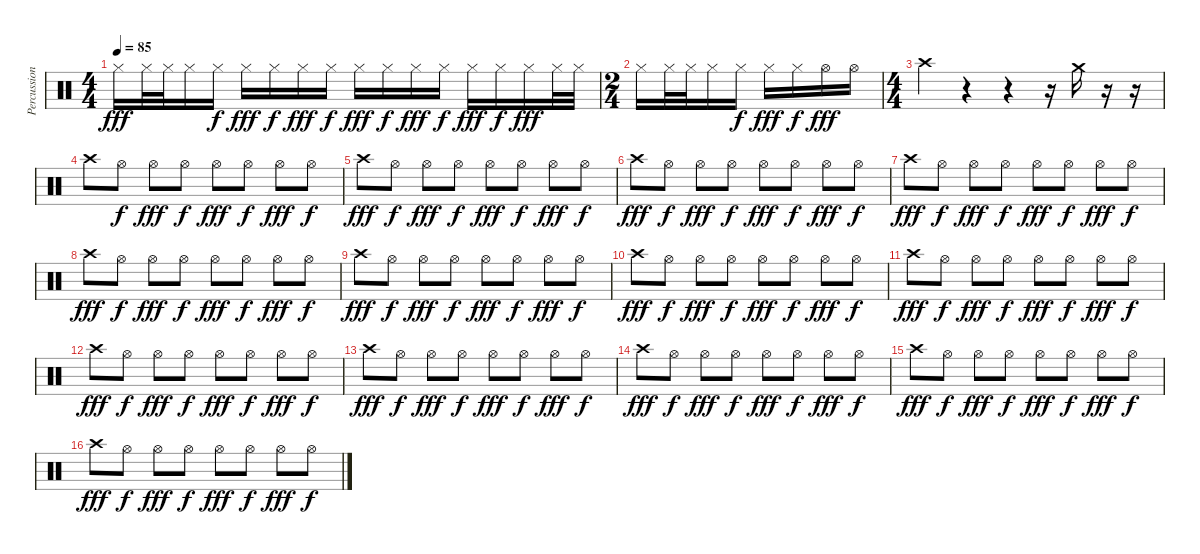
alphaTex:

\track ("Percussion" "Percussion") {instrument percussion}
\staff {score}
\articulation defaults
\ts (4 4)
\tempo 85
\clef neutral
\ks c "Hi-Hat (closed)".16{dy fff} "Hi-Hat (closed)".32 "Hi-Hat (closed)".32 "Hi-Hat (closed)".16 "Hi-Hat (closed)".16{dy f} "Hi-Hat (closed)".16{dy fff} "Hi-Hat (closed)".16{dy f} "Hi-Hat (closed)".16{dy fff} "Hi-Hat (closed)".16{dy f} "Hi-Hat (closed)".16{dy fff} "Hi-Hat (closed)".16{dy f} "Hi-Hat (closed)".16{dy fff} "Hi-Hat (closed)".16{dy f} "Hi-Hat (closed)".16{dy fff} "Hi-Hat (closed)".16{dy f} "Hi-Hat (closed)".16{dy fff} "Hi-Hat (closed)".32 "Hi-Hat (closed)".32
|
\ts (2 4)
"Hi-Hat (closed)".16 "Hi-Hat (closed)".32 "Hi-Hat (closed)".32 "Hi-Hat (closed)".16 "Hi-Hat (closed)".16{dy f} "Hi-Hat (closed)".16{dy fff} "Hi-Hat (closed)".16{dy f} "Hi-Hat (open)".16{dy fff} "Hi-Hat (open)".16 |
\ts (4 4)
"Crash high (hit)".4 r.4 r.4 r.16 "Crash medium (hit)".16 r.16 r.16 |
"Crash high (hit)".8 "Hi-Hat (open)".8{dy f} "Hi-Hat (open)".8{dy fff} "Hi-Hat (open)".8{dy f} "Hi-Hat (open)".8{dy fff} "Hi-Hat (open)".8{dy f} "Hi-Hat (open)".8{dy fff} "Hi-Hat (open)".8{dy f} |
"Crash high (hit)".8{dy fff} "Hi-Hat (open)".8{dy f} "Hi-Hat (open)".8{dy fff} "Hi-Hat (open)".8{dy f} "Hi-Hat (open)".8{dy fff} "Hi-Hat (open)".8{dy f} "Hi-Hat (open)".8{dy fff} "Hi-Hat (open)".8{dy f} |
"Crash high (hit)".8{dy fff} "Hi-Hat (open)".8{dy f} "Hi-Hat (open)".8{dy fff} "Hi-Hat (open)".8{dy f} "Hi-Hat (open)".8{dy fff} "Hi-Hat (open)".8{dy f} "Hi-Hat (open)".8{dy fff} "Hi-Hat (open)".8{dy f} |
"Crash high (hit)".8{dy fff} "Hi-Hat (open)".8{dy f} "Hi-Hat (open)".8{dy fff} "Hi-Hat (open)".8{dy f} "Hi-Hat (open)".8{dy fff} "Hi-Hat (open)".8{dy f} "Hi-Hat (open)".8{dy fff} "Hi-Hat (open)".8{dy f} |
"Crash high (hit)".8{dy fff} "Hi-Hat (open)".8{dy f} "Hi-Hat (open)".8{dy fff} "Hi-Hat (open)".8{dy f} "Hi-Hat (open)".8{dy fff} "Hi-Hat (open)".8{dy f} "Hi-Hat (open)".8{dy fff} "Hi-Hat (open)".8{dy f} |
"Crash high (hit)".8{dy fff} "Hi-Hat (open)".8{dy f} "Hi-Hat (open)".8{dy fff} "Hi-Hat (open)".8{dy f} "Hi-Hat (open)".8{dy fff} "Hi-Hat (open)".8{dy f} "Hi-Hat (open)".8{dy fff} "Hi-Hat (open)".8{dy f} |
"Crash high (hit)".8{dy fff} "Hi-Hat (open)".8{dy f} "Hi-Hat (open)".8{dy fff} "Hi-Hat (open)".8{dy f} "Hi-Hat (open)".8{dy fff} "Hi-Hat (open)".8{dy f} "Hi-Hat (open)".8{dy fff} "Hi-Hat (open)".8{dy f} |
"Crash high (hit)".8{dy fff} "Hi-Hat (open)".8{dy f} "Hi-Hat (open)".8{dy fff} "Hi-Hat (open)".8{dy f} "Hi-Hat (open)".8{dy fff} "Hi-Hat (open)".8{dy f} "Hi-Hat (open)".8{dy fff} "Hi-Hat (open)".8{dy f} |
"Crash high (hit)".8{dy fff} "Hi-Hat (open)".8{dy f} "Hi-Hat (open)".8{dy fff} "Hi-Hat (open)".8{dy f} "Hi-Hat (open)".8{dy fff} "Hi-Hat (open)".8{dy f} "Hi-Hat (open)".8{dy fff} "Hi-Hat (open)".8{dy f} |
"Crash high (hit)".8{dy fff} "Hi-Hat (open)".8{dy f} "Hi-Hat (open)".8{dy fff} "Hi-Hat (open)".8{dy f} "Hi-Hat (open)".8{dy fff} "Hi-Hat (open)".8{dy f} "Hi-Hat (open)".8{dy fff} "Hi-Hat (open)".8{dy f} |
"Crash high (hit)".8{dy fff} "Hi-Hat (open)".8{dy f} "Hi-Hat (open)".8{dy fff} "Hi-Hat (open)".8{dy f} "Hi-Hat (open)".8{dy fff} "Hi-Hat (open)".8{dy f} "Hi-Hat (open)".8{dy fff} "Hi-Hat (open)".8{dy f} |
"Crash high (hit)".8{dy fff} "Hi-Hat (open)".8{dy f} "Hi-Hat (open)".8{dy fff} "Hi-Hat (open)".8{dy f} "Hi-Hat (open)".8{dy fff} "Hi-Hat (open)".8{dy f} "Hi-Hat (open)".8{dy fff} "Hi-Hat (open)".8{dy f} |
"Crash high (hit)".8{dy fff} "Hi-Hat (open)".8{dy f} "Hi-Hat (open)".8{dy fff} "Hi-Hat (open)".8{dy f} "Hi-Hat (open)".8{dy fff} "Hi-Hat (open)".8{dy f} "Hi-Hat (open)".8{dy fff} "Hi-Hat (open)".8{dy f}
